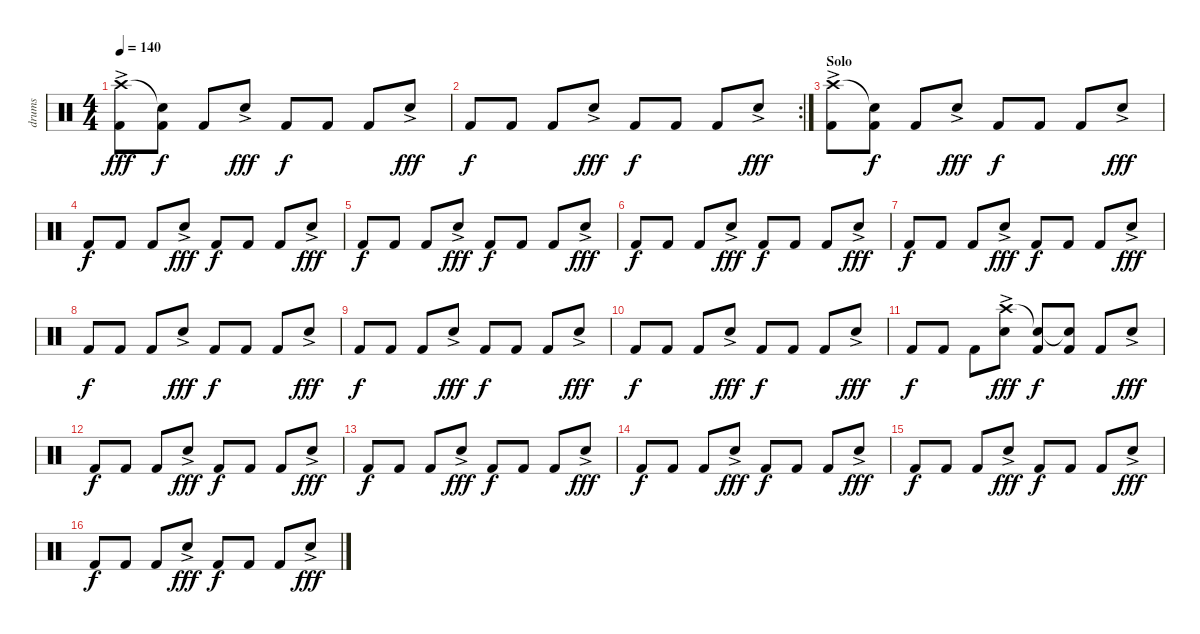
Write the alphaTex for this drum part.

\track ("drums" "drums") {instrument percussion}
\staff {score}
\articulation defaults
\ts (4 4)
\tempo 140
\clef neutral
\ks c
("Crash high (hit)"{ac} "Kick (hit) 2"{ac}).8{dy fff} ("Snare (hit)"{t} "Kick (hit) 2").8{dy f} "Kick (hit) 2".8 "Snare (hit) 2"{ac}.8{dy fff} "Kick (hit) 2".8{dy f} "Kick (hit) 2".8 "Kick (hit) 2".8 "Snare (hit) 2"{ac}.8{dy fff} |
\rc 2 "Kick (hit) 2".8{dy f} "Kick (hit) 2".8 "Kick (hit) 2".8 "Snare (hit) 2"{ac}.8{dy fff} "Kick (hit) 2".8{dy f} "Kick (hit) 2".8 "Kick (hit) 2".8 "Snare (hit) 2"{ac}.8{dy fff}
|
\section ("" "Solo")
("Crash high (hit)"{ac} "Kick (hit) 2"{ac}).8 ("Snare (hit)"{t} "Kick (hit) 2").8{dy f} "Kick (hit) 2".8 "Snare (hit) 2"{ac}.8{dy fff} "Kick (hit) 2".8{dy f} "Kick (hit) 2".8 "Kick (hit) 2".8 "Snare (hit) 2"{ac}.8{dy fff} |
"Kick (hit) 2".8{dy f} "Kick (hit) 2".8 "Kick (hit) 2".8 "Snare (hit) 2"{ac}.8{dy fff} "Kick (hit) 2".8{dy f} "Kick (hit) 2".8 "Kick (hit) 2".8 "Snare (hit) 2"{ac}.8{dy fff} |
"Kick (hit) 2".8{dy f} "Kick (hit) 2".8 "Kick (hit) 2".8 "Snare (hit) 2"{ac}.8{dy fff} "Kick (hit) 2".8{dy f} "Kick (hit) 2".8 "Kick (hit) 2".8 "Snare (hit) 2"{ac}.8{dy fff} |
"Kick (hit) 2".8{dy f} "Kick (hit) 2".8 "Kick (hit) 2".8 "Snare (hit) 2"{ac}.8{dy fff} "Kick (hit) 2".8{dy f} "Kick (hit) 2".8 "Kick (hit) 2".8 "Snare (hit) 2"{ac}.8{dy fff} |
"Kick (hit) 2".8{dy f} "Kick (hit) 2".8 "Kick (hit) 2".8 "Snare (hit) 2"{ac}.8{dy fff} "Kick (hit) 2".8{dy f} "Kick (hit) 2".8 "Kick (hit) 2".8 "Snare (hit) 2"{ac}.8{dy fff} |
"Kick (hit) 2".8{dy f} "Kick (hit) 2".8 "Kick (hit) 2".8 "Snare (hit) 2"{ac}.8{dy fff} "Kick (hit) 2".8{dy f} "Kick (hit) 2".8 "Kick (hit) 2".8 "Snare (hit) 2"{ac}.8{dy fff} |
"Kick (hit) 2".8{dy f} "Kick (hit) 2".8 "Kick (hit) 2".8 "Snare (hit) 2"{ac}.8{dy fff} "Kick (hit) 2".8{dy f} "Kick (hit) 2".8 "Kick (hit) 2".8 "Snare (hit) 2"{ac}.8{dy fff} |
"Kick (hit) 2".8{dy f} "Kick (hit) 2".8 "Kick (hit) 2".8 "Snare (hit) 2"{ac}.8{dy fff} "Kick (hit) 2".8{dy f} "Kick (hit) 2".8 "Kick (hit) 2".8 "Snare (hit) 2"{ac}.8{dy fff} |
"Kick (hit) 2".8{dy f} "Kick (hit) 2".8 "Kick (hit) 2".8 ("Crash high (hit)"{ac} "Snare (hit) 2"{ac}).8{dy fff} ("Snare (hit)"{t} "Kick (hit) 2").8{dy f} ("Snare (hit)"{t} "Kick (hit) 2").8 "Kick (hit) 2".8 "Snare (hit) 2"{ac}.8{dy fff} |
"Kick (hit) 2".8{dy f} "Kick (hit) 2".8 "Kick (hit) 2".8 "Snare (hit) 2"{ac}.8{dy fff} "Kick (hit) 2".8{dy f} "Kick (hit) 2".8 "Kick (hit) 2".8 "Snare (hit) 2"{ac}.8{dy fff} |
"Kick (hit) 2".8{dy f} "Kick (hit) 2".8 "Kick (hit) 2".8 "Snare (hit) 2"{ac}.8{dy fff} "Kick (hit) 2".8{dy f} "Kick (hit) 2".8 "Kick (hit) 2".8 "Snare (hit) 2"{ac}.8{dy fff} |
"Kick (hit) 2".8{dy f} "Kick (hit) 2".8 "Kick (hit) 2".8 "Snare (hit) 2"{ac}.8{dy fff} "Kick (hit) 2".8{dy f} "Kick (hit) 2".8 "Kick (hit) 2".8 "Snare (hit) 2"{ac}.8{dy fff} |
"Kick (hit) 2".8{dy f} "Kick (hit) 2".8 "Kick (hit) 2".8 "Snare (hit) 2"{ac}.8{dy fff} "Kick (hit) 2".8{dy f} "Kick (hit) 2".8 "Kick (hit) 2".8 "Snare (hit) 2"{ac}.8{dy fff} |
"Kick (hit) 2".8{dy f} "Kick (hit) 2".8 "Kick (hit) 2".8 "Snare (hit) 2"{ac}.8{dy fff} "Kick (hit) 2".8{dy f} "Kick (hit) 2".8 "Kick (hit) 2".8 "Snare (hit) 2"{ac}.8{dy fff}
